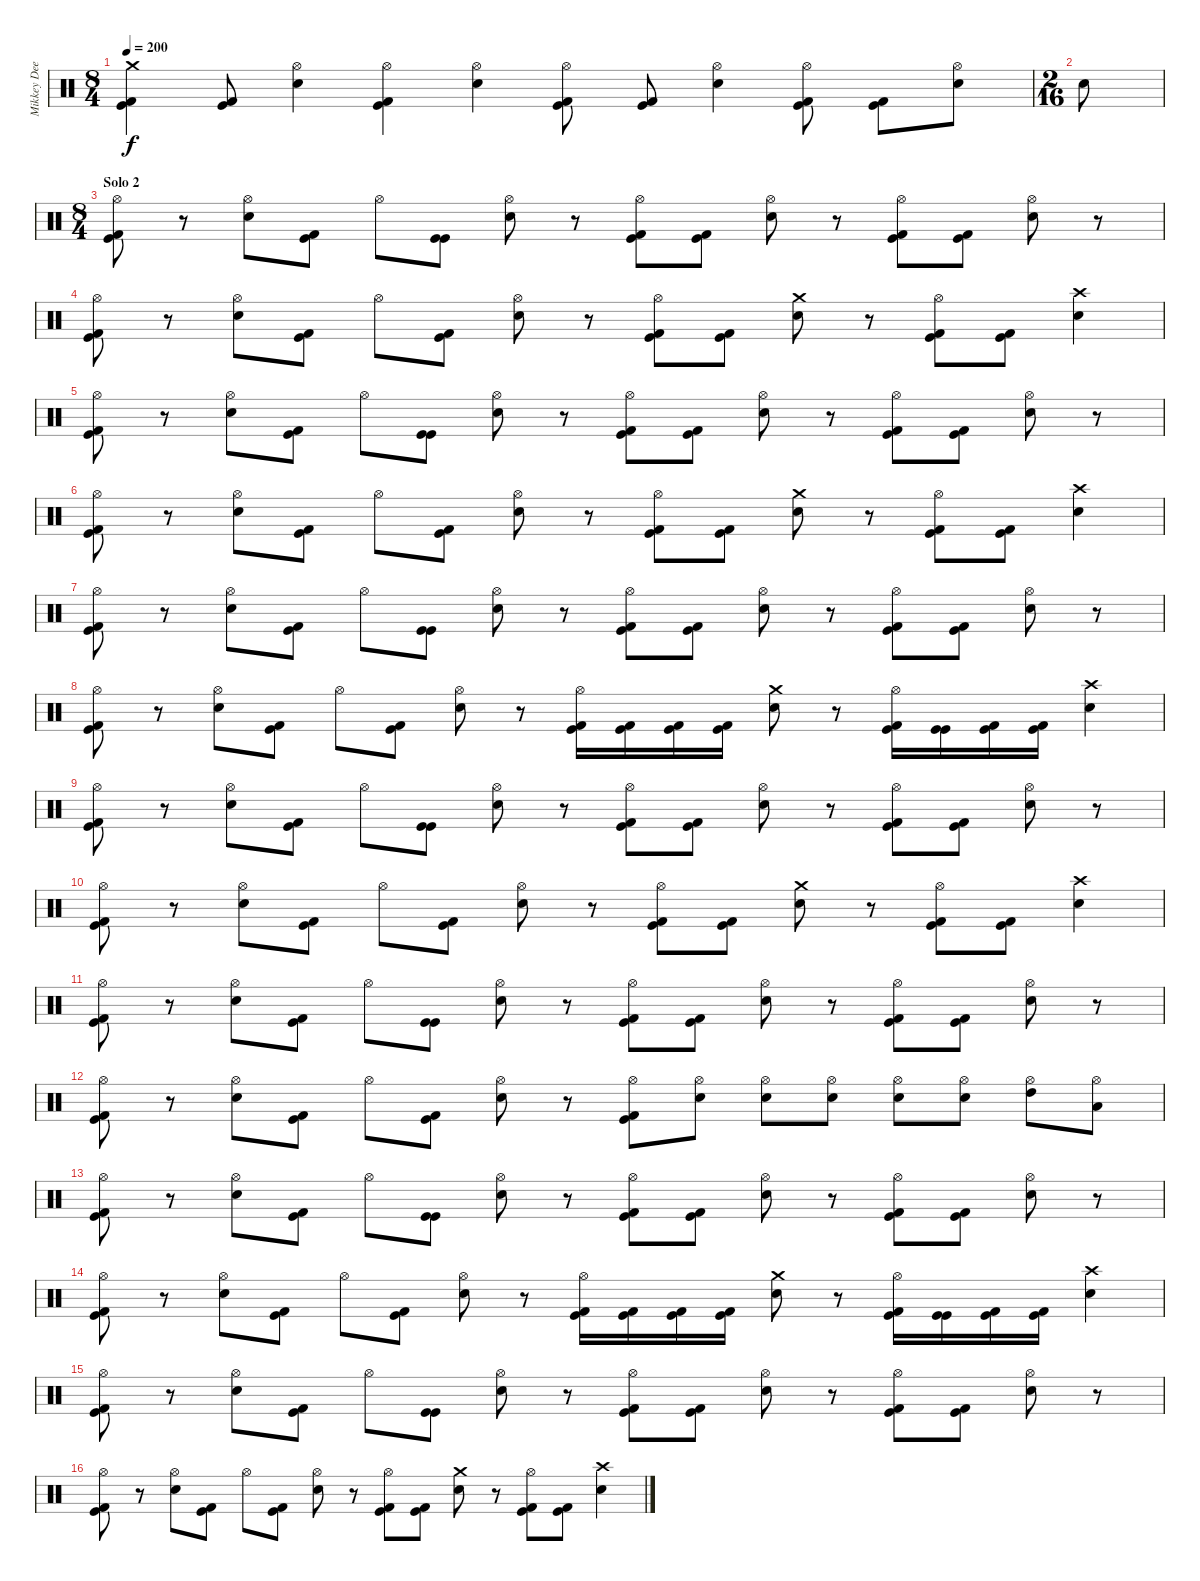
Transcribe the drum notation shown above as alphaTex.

\track ("Mikkey Dee" "Mikkey Dee") {instrument percussion}
\staff {score}
\articulation defaults
\ts (8 4)
\tempo 200
\clef neutral
\ks c
("Crash medium (hit)" "Kick (hit)" "Kick (hit) 2").4{dy f} ("Kick (hit)" "Kick (hit) 2").8 ("Hi-Hat (open)" "Electric Snare (hit)").4 ("Hi-Hat (open)" "Kick (hit)" "Kick (hit) 2").4 ("Hi-Hat (open)" "Electric Snare (hit)").4 ("Hi-Hat (open)" "Kick (hit)" "Kick (hit) 2").8 ("Kick (hit)" "Kick (hit) 2").8 ("Hi-Hat (open)" "Electric Snare (hit)").4 ("Hi-Hat (open)" "Kick (hit)" "Kick (hit) 2").8 ("Kick (hit)" "Kick (hit) 2").8 ("Hi-Hat (open)" "Electric Snare (hit)").8 |
\ts (2 16)
"Electric Snare (hit)".8 |
\ts (8 4)
\section ("" "Solo 2")
("Hi-Hat (open)" "Kick (hit)" "Kick (hit) 2").8 r.8 ("Hi-Hat (open)" "Electric Snare (hit)").8 ("Kick (hit)" "Kick (hit) 2").8 "Hi-Hat (open)".8 ("Kick (hit)" "Kick (hit)").8 ("Hi-Hat (open)" "Electric Snare (hit)").8 r.8 ("Hi-Hat (open)" "Kick (hit)" "Kick (hit) 2").8 ("Kick (hit)" "Kick (hit) 2").8 ("Hi-Hat (open)" "Electric Snare (hit)").8 r.8 ("Hi-Hat (open)" "Kick (hit)" "Kick (hit) 2").8 ("Kick (hit)" "Kick (hit) 2").8 ("Hi-Hat (open)" "Electric Snare (hit)").8 r.8 |
("Hi-Hat (open)" "Kick (hit)" "Kick (hit) 2").8 r.8 ("Hi-Hat (open)" "Electric Snare (hit)").8 ("Kick (hit)" "Kick (hit) 2").8 "Hi-Hat (open)".8 ("Kick (hit)" "Kick (hit) 2").8 ("Hi-Hat (open)" "Electric Snare (hit)").8 r.8 ("Hi-Hat (open)" "Kick (hit)" "Kick (hit) 2").8 ("Kick (hit)" "Kick (hit) 2").8 ("Crash medium (hit)" "Electric Snare (hit)").8 r.8 ("Hi-Hat (open)" "Kick (hit)" "Kick (hit) 2").8 ("Kick (hit)" "Kick (hit) 2").8 ("Crash high (hit)" "Electric Snare (hit)").4 |
("Hi-Hat (open)" "Kick (hit)" "Kick (hit) 2").8 r.8 ("Hi-Hat (open)" "Electric Snare (hit)").8 ("Kick (hit)" "Kick (hit) 2").8 "Hi-Hat (open)".8 ("Kick (hit)" "Kick (hit)").8 ("Hi-Hat (open)" "Electric Snare (hit)").8 r.8 ("Hi-Hat (open)" "Kick (hit)" "Kick (hit) 2").8 ("Kick (hit)" "Kick (hit) 2").8 ("Hi-Hat (open)" "Electric Snare (hit)").8 r.8 ("Hi-Hat (open)" "Kick (hit)" "Kick (hit) 2").8 ("Kick (hit)" "Kick (hit) 2").8 ("Hi-Hat (open)" "Electric Snare (hit)").8 r.8 |
("Hi-Hat (open)" "Kick (hit)" "Kick (hit) 2").8 r.8 ("Hi-Hat (open)" "Electric Snare (hit)").8 ("Kick (hit)" "Kick (hit) 2").8 "Hi-Hat (open)".8 ("Kick (hit)" "Kick (hit) 2").8 ("Hi-Hat (open)" "Electric Snare (hit)").8 r.8 ("Hi-Hat (open)" "Kick (hit)" "Kick (hit) 2").8 ("Kick (hit)" "Kick (hit) 2").8 ("Crash medium (hit)" "Electric Snare (hit)").8 r.8 ("Hi-Hat (open)" "Kick (hit)" "Kick (hit) 2").8 ("Kick (hit)" "Kick (hit) 2").8 ("Crash high (hit)" "Electric Snare (hit)").4 |
("Hi-Hat (open)" "Kick (hit)" "Kick (hit) 2").8 r.8 ("Hi-Hat (open)" "Electric Snare (hit)").8 ("Kick (hit)" "Kick (hit) 2").8 "Hi-Hat (open)".8 ("Kick (hit)" "Kick (hit)").8 ("Hi-Hat (open)" "Electric Snare (hit)").8 r.8 ("Hi-Hat (open)" "Kick (hit)" "Kick (hit) 2").8 ("Kick (hit)" "Kick (hit) 2").8 ("Hi-Hat (open)" "Electric Snare (hit)").8 r.8 ("Hi-Hat (open)" "Kick (hit)" "Kick (hit) 2").8 ("Kick (hit)" "Kick (hit) 2").8 ("Hi-Hat (open)" "Electric Snare (hit)").8 r.8 |
("Hi-Hat (open)" "Kick (hit)" "Kick (hit) 2").8 r.8 ("Hi-Hat (open)" "Electric Snare (hit)").8 ("Kick (hit)" "Kick (hit) 2").8 "Hi-Hat (open)".8 ("Kick (hit)" "Kick (hit) 2").8 ("Hi-Hat (open)" "Electric Snare (hit)").8 r.8 ("Hi-Hat (open)" "Kick (hit)" "Kick (hit) 2").16 ("Kick (hit)" "Kick (hit) 2").16 ("Kick (hit)" "Kick (hit) 2").16 ("Kick (hit)" "Kick (hit) 2").16 ("Crash medium (hit)" "Electric Snare (hit)").8 r.8 ("Hi-Hat (open)" "Kick (hit)" "Kick (hit) 2").16 ("Kick (hit)" "Kick (hit)").16 ("Kick (hit)" "Kick (hit) 2").16 ("Kick (hit)" "Kick (hit) 2").16 ("Crash high (hit)" "Electric Snare (hit)").4 |
("Hi-Hat (open)" "Kick (hit)" "Kick (hit) 2").8 r.8 ("Hi-Hat (open)" "Electric Snare (hit)").8 ("Kick (hit)" "Kick (hit) 2").8 "Hi-Hat (open)".8 ("Kick (hit)" "Kick (hit)").8 ("Hi-Hat (open)" "Electric Snare (hit)").8 r.8 ("Hi-Hat (open)" "Kick (hit)" "Kick (hit) 2").8 ("Kick (hit)" "Kick (hit) 2").8 ("Hi-Hat (open)" "Electric Snare (hit)").8 r.8 ("Hi-Hat (open)" "Kick (hit)" "Kick (hit) 2").8 ("Kick (hit)" "Kick (hit) 2").8 ("Hi-Hat (open)" "Electric Snare (hit)").8 r.8 |
("Hi-Hat (open)" "Kick (hit)" "Kick (hit) 2").8 r.8 ("Hi-Hat (open)" "Electric Snare (hit)").8 ("Kick (hit)" "Kick (hit) 2").8 "Hi-Hat (open)".8 ("Kick (hit)" "Kick (hit) 2").8 ("Hi-Hat (open)" "Electric Snare (hit)").8 r.8 ("Hi-Hat (open)" "Kick (hit)" "Kick (hit) 2").8 ("Kick (hit)" "Kick (hit) 2").8 ("Crash medium (hit)" "Electric Snare (hit)").8 r.8 ("Hi-Hat (open)" "Kick (hit)" "Kick (hit) 2").8 ("Kick (hit)" "Kick (hit) 2").8 ("Crash high (hit)" "Electric Snare (hit)").4 |
("Hi-Hat (open)" "Kick (hit)" "Kick (hit) 2").8 r.8 ("Hi-Hat (open)" "Electric Snare (hit)").8 ("Kick (hit)" "Kick (hit) 2").8 "Hi-Hat (open)".8 ("Kick (hit)" "Kick (hit)").8 ("Hi-Hat (open)" "Electric Snare (hit)").8 r.8 ("Hi-Hat (open)" "Kick (hit)" "Kick (hit) 2").8 ("Kick (hit)" "Kick (hit) 2").8 ("Hi-Hat (open)" "Electric Snare (hit)").8 r.8 ("Hi-Hat (open)" "Kick (hit)" "Kick (hit) 2").8 ("Kick (hit)" "Kick (hit) 2").8 ("Hi-Hat (open)" "Electric Snare (hit)").8 r.8 |
("Hi-Hat (open)" "Kick (hit)" "Kick (hit) 2").8 r.8 ("Hi-Hat (open)" "Electric Snare (hit)").8 ("Kick (hit)" "Kick (hit) 2").8 "Hi-Hat (open)".8 ("Kick (hit)" "Kick (hit) 2").8 ("Hi-Hat (open)" "Electric Snare (hit)").8 r.8 ("Hi-Hat (open)" "Kick (hit)" "Kick (hit) 2").8 ("Hi-Hat (open)" "Electric Snare (hit)").8 ("Hi-Hat (open)" "Electric Snare (hit)").8 ("Hi-Hat (open)" "Electric Snare (hit)").8 ("Hi-Hat (open)" "Electric Snare (hit)").8 ("Hi-Hat (open)" "Electric Snare (hit)").8 ("Hi-Hat (open)" "High Tom (hit)").8 ("Hi-Hat (open)" "Low Tom (hit)").8 |
("Hi-Hat (open)" "Kick (hit)" "Kick (hit) 2").8 r.8 ("Hi-Hat (open)" "Electric Snare (hit)").8 ("Kick (hit)" "Kick (hit) 2").8 "Hi-Hat (open)".8 ("Kick (hit)" "Kick (hit)").8 ("Hi-Hat (open)" "Electric Snare (hit)").8 r.8 ("Hi-Hat (open)" "Kick (hit)" "Kick (hit) 2").8 ("Kick (hit)" "Kick (hit) 2").8 ("Hi-Hat (open)" "Electric Snare (hit)").8 r.8 ("Hi-Hat (open)" "Kick (hit)" "Kick (hit) 2").8 ("Kick (hit)" "Kick (hit) 2").8 ("Hi-Hat (open)" "Electric Snare (hit)").8 r.8 |
("Hi-Hat (open)" "Kick (hit)" "Kick (hit) 2").8 r.8 ("Hi-Hat (open)" "Electric Snare (hit)").8 ("Kick (hit)" "Kick (hit) 2").8 "Hi-Hat (open)".8 ("Kick (hit)" "Kick (hit) 2").8 ("Hi-Hat (open)" "Electric Snare (hit)").8 r.8 ("Hi-Hat (open)" "Kick (hit)" "Kick (hit) 2").16 ("Kick (hit)" "Kick (hit) 2").16 ("Kick (hit)" "Kick (hit) 2").16 ("Kick (hit)" "Kick (hit) 2").16 ("Crash medium (hit)" "Electric Snare (hit)").8 r.8 ("Hi-Hat (open)" "Kick (hit)" "Kick (hit) 2").16 ("Kick (hit)" "Kick (hit)").16 ("Kick (hit)" "Kick (hit) 2").16 ("Kick (hit)" "Kick (hit) 2").16 ("Crash high (hit)" "Electric Snare (hit)").4 |
("Hi-Hat (open)" "Kick (hit)" "Kick (hit) 2").8 r.8 ("Hi-Hat (open)" "Electric Snare (hit)").8 ("Kick (hit)" "Kick (hit) 2").8 "Hi-Hat (open)".8 ("Kick (hit)" "Kick (hit)").8 ("Hi-Hat (open)" "Electric Snare (hit)").8 r.8 ("Hi-Hat (open)" "Kick (hit)" "Kick (hit) 2").8 ("Kick (hit)" "Kick (hit) 2").8 ("Hi-Hat (open)" "Electric Snare (hit)").8 r.8 ("Hi-Hat (open)" "Kick (hit)" "Kick (hit) 2").8 ("Kick (hit)" "Kick (hit) 2").8 ("Hi-Hat (open)" "Electric Snare (hit)").8 r.8 |
("Hi-Hat (open)" "Kick (hit)" "Kick (hit) 2").8 r.8 ("Hi-Hat (open)" "Electric Snare (hit)").8 ("Kick (hit)" "Kick (hit) 2").8 "Hi-Hat (open)".8 ("Kick (hit)" "Kick (hit) 2").8 ("Hi-Hat (open)" "Electric Snare (hit)").8 r.8 ("Hi-Hat (open)" "Kick (hit)" "Kick (hit) 2").8 ("Kick (hit)" "Kick (hit) 2").8 ("Crash medium (hit)" "Electric Snare (hit)").8 r.8 ("Hi-Hat (open)" "Kick (hit)" "Kick (hit) 2").8 ("Kick (hit)" "Kick (hit) 2").8 ("Crash high (hit)" "Electric Snare (hit)").4
